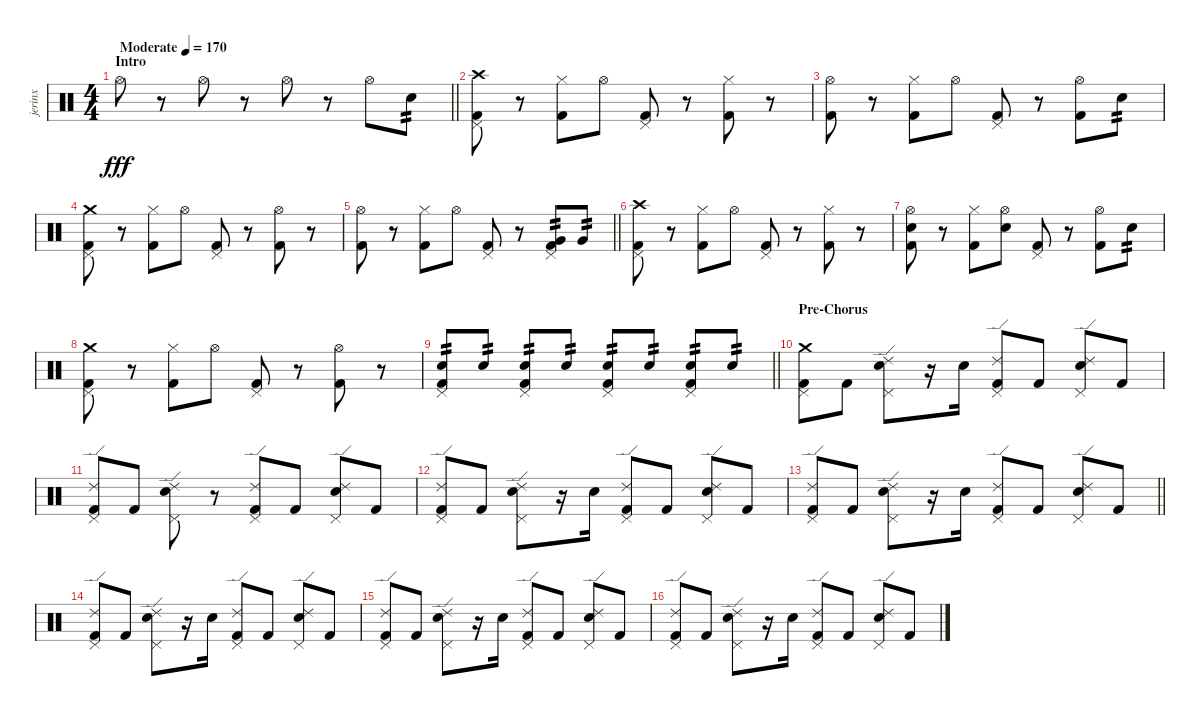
\track ("jerinx" "jerinx") {instrument percussion}
\staff {score}
\articulation defaults
\ts (4 4)
\section ("" "Intro")
\tempo (170 "Moderate")
\clef neutral
\barLineRight lightlight
\ks c "Hi-Hat (open)".8{dy fff}
r.8 "Hi-Hat (open)".8 r.8 "Hi-Hat (open)".8 r.8 "Hi-Hat (open)".8 "Snare (hit) 2".8{tp 2} |
("Pedal Hi-Hat (hit)" "Kick (hit) 2" "Crash high (hit)").8 r.8 ("Hi-Hat (closed)" "Kick (hit) 2").8 "Hi-Hat (open)".8 ("Pedal Hi-Hat (hit)" "Kick (hit) 2").8 r.8 ("Hi-Hat (closed)" "Kick (hit) 2").8 r.8 |
("Hi-Hat (open)" "Kick (hit) 2").8 r.8 ("Hi-Hat (closed)" "Kick (hit) 2").8 "Hi-Hat (open)".8 ("Pedal Hi-Hat (hit)" "Kick (hit) 2").8 r.8 ("Hi-Hat (open)" "Kick (hit) 2").8 "Snare (hit) 2".8{tp 2} |
("Pedal Hi-Hat (hit)" "Kick (hit) 2" "Crash medium (hit)").8 r.8 ("Hi-Hat (closed)" "Kick (hit) 2").8 "Hi-Hat (open)".8 ("Pedal Hi-Hat (hit)" "Kick (hit) 2").8 r.8 ("Hi-Hat (open)" "Kick (hit) 2").8 r.8 |
\barLineRight lightlight
("Hi-Hat (open)" "Kick (hit) 2").8 r.8 ("Hi-Hat (closed)" "Kick (hit) 2").8 "Hi-Hat (open)".8 ("Pedal Hi-Hat (hit)" "Kick (hit) 2").8 r.8 ("Pedal Hi-Hat (hit)" "Kick (hit) 2" "Very Low Tom (hit)").8{tp 2} "Very Low Tom (hit)".8{tp 2} |
("Pedal Hi-Hat (hit)" "Kick (hit) 2" "Crash high (hit)").8 r.8 ("Hi-Hat (closed)" "Kick (hit) 2").8 "Hi-Hat (open)".8 ("Pedal Hi-Hat (hit)" "Kick (hit) 2").8 r.8 ("Hi-Hat (closed)" "Kick (hit) 2").8 r.8 |
("Hi-Hat (open)" "Snare (hit) 2" "Kick (hit) 2").8 r.8 ("Hi-Hat (closed)" "Kick (hit) 2").8 ("Hi-Hat (open)" "Snare (hit) 2").8 ("Pedal Hi-Hat (hit)" "Kick (hit) 2").8 r.8 ("Hi-Hat (open)" "Kick (hit) 2").8 "Snare (hit) 2".8{tp 2} |
("Pedal Hi-Hat (hit)" "Kick (hit) 2" "Crash medium (hit)").8 r.8 ("Hi-Hat (closed)" "Kick (hit) 2").8 "Hi-Hat (open)".8 ("Pedal Hi-Hat (hit)" "Kick (hit) 2").8 r.8 ("Hi-Hat (open)" "Kick (hit) 2").8 r.8 |
\barLineRight lightlight
("Pedal Hi-Hat (hit)" "Snare (hit) 2" "Kick (hit) 2").8{tp 2} "Snare (hit) 2".8{tp 2} ("Pedal Hi-Hat (hit)" "Snare (hit) 2" "Kick (hit) 2").8{tp 2} "Snare (hit) 2".8{tp 2} ("Pedal Hi-Hat (hit)" "Snare (hit) 2" "Kick (hit) 2").8{tp 2} "Snare (hit) 2".8{tp 2} ("Pedal Hi-Hat (hit)" "Snare (hit) 2" "Kick (hit) 2").8{tp 2} "Snare (hit) 2".8{tp 2} |
\section ("" "Pre-Chorus")
("Pedal Hi-Hat (hit)" "Kick (hit) 2" "Crash medium (hit)").8 "Kick (hit) 2".8 ("Pedal Hi-Hat (hit)" "Snare (hit) 2" "Ride (edge) 2").8 r.16 "Snare (hit) 2".16 ("Pedal Hi-Hat (hit)" "Kick (hit) 2" "Ride (edge) 2").8 "Kick (hit) 2".8 ("Pedal Hi-Hat (hit)" "Snare (hit) 2" "Ride (edge) 2").8 "Kick (hit) 2".8 |
("Pedal Hi-Hat (hit)" "Kick (hit) 2" "Ride (edge) 2").8 "Kick (hit) 2".8 ("Pedal Hi-Hat (hit)" "Snare (hit) 2" "Ride (edge) 2").8 r.8 ("Pedal Hi-Hat (hit)" "Kick (hit) 2" "Ride (edge) 2").8 "Kick (hit) 2".8 ("Pedal Hi-Hat (hit)" "Snare (hit) 2" "Ride (edge) 2").8 "Kick (hit) 2".8 |
("Pedal Hi-Hat (hit)" "Kick (hit) 2" "Ride (edge) 2").8 "Kick (hit) 2".8 ("Pedal Hi-Hat (hit)" "Snare (hit) 2" "Ride (edge) 2").8 r.16 "Snare (hit) 2".16 ("Pedal Hi-Hat (hit)" "Kick (hit) 2" "Ride (edge) 2").8 "Kick (hit) 2".8 ("Pedal Hi-Hat (hit)" "Snare (hit) 2" "Ride (edge) 2").8 "Kick (hit) 2".8 |
\barLineRight lightlight
("Pedal Hi-Hat (hit)" "Kick (hit) 2" "Ride (edge) 2").8 "Kick (hit) 2".8 ("Pedal Hi-Hat (hit)" "Snare (hit) 2" "Ride (edge) 2").8 r.16 "Snare (hit) 2".16 ("Pedal Hi-Hat (hit)" "Kick (hit) 2" "Ride (edge) 2").8 "Kick (hit) 2".8 ("Pedal Hi-Hat (hit)" "Snare (hit) 2" "Ride (edge) 2").8 "Kick (hit) 2".8 |
("Pedal Hi-Hat (hit)" "Kick (hit) 2" "Ride (edge) 2").8 "Kick (hit) 2".8 ("Pedal Hi-Hat (hit)" "Snare (hit) 2" "Ride (edge) 2").8 r.16 "Snare (hit) 2".16 ("Pedal Hi-Hat (hit)" "Kick (hit) 2" "Ride (edge) 2").8 "Kick (hit) 2".8 ("Pedal Hi-Hat (hit)" "Snare (hit) 2" "Ride (edge) 2").8 "Kick (hit) 2".8 |
("Pedal Hi-Hat (hit)" "Kick (hit) 2" "Ride (edge) 2").8 "Kick (hit) 2".8 ("Pedal Hi-Hat (hit)" "Snare (hit) 2" "Ride (edge) 2").8 r.16 "Snare (hit) 2".16 ("Pedal Hi-Hat (hit)" "Kick (hit) 2" "Ride (edge) 2").8 "Kick (hit) 2".8 ("Pedal Hi-Hat (hit)" "Snare (hit) 2" "Ride (edge) 2").8 "Kick (hit) 2".8 |
("Pedal Hi-Hat (hit)" "Kick (hit) 2" "Ride (edge) 2").8 "Kick (hit) 2".8 ("Pedal Hi-Hat (hit)" "Snare (hit) 2" "Ride (edge) 2").8 r.16 "Snare (hit) 2".16 ("Pedal Hi-Hat (hit)" "Kick (hit) 2" "Ride (edge) 2").8 "Kick (hit) 2".8 ("Pedal Hi-Hat (hit)" "Snare (hit) 2" "Ride (edge) 2").8 "Kick (hit) 2".8
